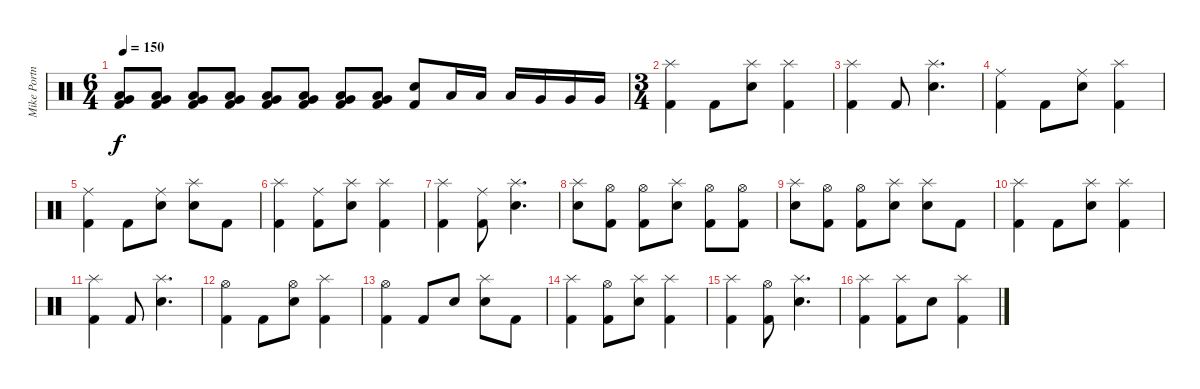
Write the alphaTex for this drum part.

\track ("Mike Portnoy" "Mike Portn") {instrument percussion}
\staff {score}
\articulation defaults
\ts (6 4)
\tempo 150
\clef neutral
\ks c
("Kick (hit) 2" "Very Low Tom (hit)" "Low Tom (hit)").8{dy f} ("Kick (hit) 2" "Very Low Tom (hit)" "Low Tom (hit)").8 ("Kick (hit) 2" "Very Low Tom (hit)" "Low Tom (hit)").8 ("Kick (hit) 2" "Very Low Tom (hit)" "Low Tom (hit)").8 ("Kick (hit) 2" "Very Low Tom (hit)" "Low Tom (hit)").8 ("Kick (hit) 2" "Very Low Tom (hit)" "Low Tom (hit)").8 ("Kick (hit) 2" "Very Low Tom (hit)" "Low Tom (hit)").8 ("Kick (hit) 2" "Very Low Tom (hit)" "Low Tom (hit)").8 ("Kick (hit) 2" "Electric Snare (hit)").8 "Low Tom (hit)".16 "Low Tom (hit)".16 "Low Tom (hit)".16 "Very Low Tom (hit)".16 "Very Low Tom (hit)".16 "Very Low Tom (hit)".16 |
\ts (3 4)
("Kick (hit) 2" "Splash (hit)").4 "Kick (hit) 2".8 ("Electric Snare (hit)" "Splash (hit)").8 ("Kick (hit) 2" "Splash (hit)").4 |
("Kick (hit) 2" "Splash (hit)").4 "Kick (hit) 2".8 ("Electric Snare (hit)" "Splash (hit)").4{d} |
("Kick (hit) 2" "Ride (middle)").4 "Kick (hit) 2".8 ("Electric Snare (hit)" "Ride (middle)").8 ("Kick (hit) 2" "Splash (hit)").4 |
("Kick (hit) 2" "Ride (middle)").4 "Kick (hit) 2".8 ("Electric Snare (hit)" "Ride (middle)").8 ("Electric Snare (hit)" "Splash (hit)").8 "Kick (hit) 2".8 |
("Kick (hit) 2" "Splash (hit)").4 ("Kick (hit) 2" "Ride (middle)").8 ("Electric Snare (hit)" "Splash (hit)").8 ("Kick (hit) 2" "Splash (hit)").4 |
("Kick (hit) 2" "Splash (hit)").4 ("Kick (hit) 2" "Ride (middle)").8 ("Electric Snare (hit)" "Splash (hit)").4{d} |
("Electric Snare (hit)" "Splash (hit)").8 ("Kick (hit) 2" "Hi-Hat (open)").8 ("Kick (hit) 2" "Hi-Hat (open)").8 ("Electric Snare (hit)" "Splash (hit)").8 ("Kick (hit) 2" "Hi-Hat (open)").8 ("Kick (hit) 2" "Hi-Hat (open)").8 |
("Electric Snare (hit)" "Splash (hit)").8 ("Kick (hit) 2" "Hi-Hat (open)").8 ("Kick (hit) 2" "Hi-Hat (open)").8 ("Electric Snare (hit)" "Splash (hit)").8 ("Electric Snare (hit)" "Splash (hit)").8 "Kick (hit) 2".8 |
("Kick (hit) 2" "Splash (hit)").4 "Kick (hit) 2".8 ("Electric Snare (hit)" "Splash (hit)").8 ("Kick (hit) 2" "Splash (hit)").4 |
("Kick (hit) 2" "Splash (hit)").4 "Kick (hit) 2".8 ("Electric Snare (hit)" "Splash (hit)").4{d} |
("Kick (hit) 2" "Hi-Hat (open)").4 "Kick (hit) 2".8 ("Electric Snare (hit)" "Hi-Hat (open)").8 ("Kick (hit) 2" "Splash (hit)").4 |
("Kick (hit) 2" "Hi-Hat (open)").4 "Kick (hit) 2".8 "Electric Snare (hit)".8 ("Electric Snare (hit)" "Splash (hit)").8 "Kick (hit) 2".8 |
("Kick (hit) 2" "Splash (hit)").4 ("Kick (hit) 2" "Hi-Hat (open)").8 ("Electric Snare (hit)" "Splash (hit)").8 ("Kick (hit) 2" "Splash (hit)").4 |
("Kick (hit) 2" "Splash (hit)").4 ("Kick (hit) 2" "Hi-Hat (open)").8 ("Electric Snare (hit)" "Splash (hit)").4{d} |
("Kick (hit) 2" "Splash (hit)").4 ("Kick (hit) 2" "Splash (hit)").8 "Electric Snare (hit)".8 ("Kick (hit) 2" "Splash (hit)").4
